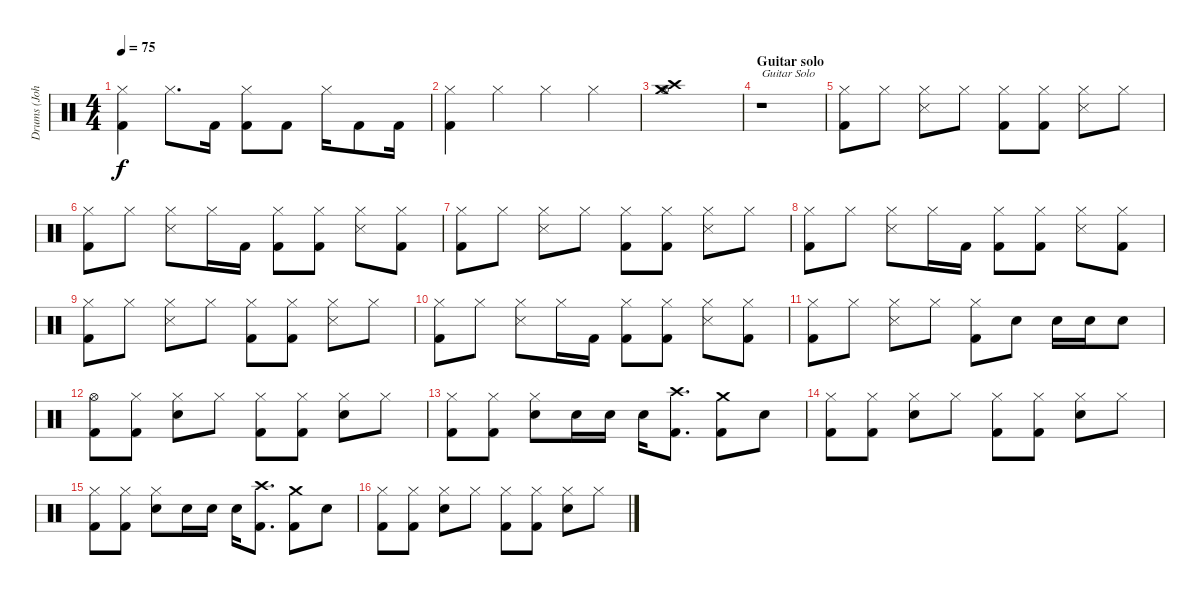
\track ("Drums (John Bonham" "Drums (Joh") {instrument percussion}
\staff {score}
\articulation defaults
\ts (4 4)
\tempo 75
\clef neutral
\ks c
("Hi-Hat (closed)" "Kick (hit) 2").4{dy f} "Hi-Hat (closed)".8{d} "Kick (hit) 2".16 ("Hi-Hat (closed)" "Kick (hit) 2").8 "Kick (hit) 2".8 "Hi-Hat (closed)".16 "Kick (hit) 2".8 "Kick (hit) 2".16 |
("Hi-Hat (closed)" "Kick (hit) 2").4 "Hi-Hat (closed)".4 "Hi-Hat (closed)".4 "Hi-Hat (closed)".4 |
("Crash medium (hit)" "Crash high (hit)" "Hi-Hat (open)").1 |
\section ("" "Guitar solo")
r.1{txt "Guitar Solo"} |
("Hi-Hat (closed)" "Kick (hit) 2").8 "Hi-Hat (closed)".8 ("Hi-Hat (closed)" "Snare (side stick) 3").8 "Hi-Hat (closed)".8 ("Hi-Hat (closed)" "Kick (hit) 2").8 ("Hi-Hat (closed)" "Kick (hit) 2").8 ("Hi-Hat (closed)" "Snare (side stick) 3").8 "Hi-Hat (closed)".8 |
("Hi-Hat (closed)" "Kick (hit) 2").8 "Hi-Hat (closed)".8 ("Hi-Hat (closed)" "Snare (side stick) 3").8 "Hi-Hat (closed)".16 "Kick (hit) 2".16 ("Hi-Hat (closed)" "Kick (hit) 2").8 ("Hi-Hat (closed)" "Kick (hit) 2").8 ("Hi-Hat (closed)" "Snare (side stick) 3").8 ("Hi-Hat (closed)" "Kick (hit) 2").8 |
("Hi-Hat (closed)" "Kick (hit) 2").8 "Hi-Hat (closed)".8 ("Hi-Hat (closed)" "Snare (side stick) 3").8 "Hi-Hat (closed)".8 ("Hi-Hat (closed)" "Kick (hit) 2").8 ("Hi-Hat (closed)" "Kick (hit) 2").8 ("Hi-Hat (closed)" "Snare (side stick) 3").8 "Hi-Hat (closed)".8 |
("Hi-Hat (closed)" "Kick (hit) 2").8 "Hi-Hat (closed)".8 ("Hi-Hat (closed)" "Snare (side stick) 3").8 "Hi-Hat (closed)".16 "Kick (hit) 2".16 ("Hi-Hat (closed)" "Kick (hit) 2").8 ("Hi-Hat (closed)" "Kick (hit) 2").8 ("Hi-Hat (closed)" "Snare (side stick) 3").8 ("Hi-Hat (closed)" "Kick (hit) 2").8 |
("Hi-Hat (closed)" "Kick (hit) 2").8 "Hi-Hat (closed)".8 ("Hi-Hat (closed)" "Snare (side stick) 3").8 "Hi-Hat (closed)".8 ("Hi-Hat (closed)" "Kick (hit) 2").8 ("Hi-Hat (closed)" "Kick (hit) 2").8 ("Hi-Hat (closed)" "Snare (side stick) 3").8 "Hi-Hat (closed)".8 |
("Hi-Hat (closed)" "Kick (hit) 2").8 "Hi-Hat (closed)".8 ("Hi-Hat (closed)" "Snare (side stick) 3").8 "Hi-Hat (closed)".16 "Kick (hit) 2".16 ("Hi-Hat (closed)" "Kick (hit) 2").8 ("Hi-Hat (closed)" "Kick (hit) 2").8 ("Hi-Hat (closed)" "Snare (side stick) 3").8 ("Hi-Hat (closed)" "Kick (hit) 2").8 |
("Hi-Hat (closed)" "Kick (hit) 2").8 "Hi-Hat (closed)".8 ("Hi-Hat (closed)" "Snare (side stick) 3").8 "Hi-Hat (closed)".8 ("Hi-Hat (closed)" "Kick (hit) 2").8 "Snare (hit) 2".8 "Snare (hit) 2".16 "Snare (hit) 2".16 "Snare (hit) 2".8 |
("Hi-Hat (open)" "Kick (hit) 2").8 ("Hi-Hat (closed)" "Kick (hit) 2").8 ("Hi-Hat (closed)" "Snare (hit) 2").8 "Hi-Hat (closed)".8 ("Hi-Hat (closed)" "Kick (hit) 2").8 ("Hi-Hat (closed)" "Kick (hit) 2").8 ("Hi-Hat (closed)" "Snare (hit) 2").8 "Hi-Hat (closed)".8 |
("Hi-Hat (closed)" "Kick (hit) 2").8 ("Hi-Hat (closed)" "Kick (hit) 2").8 ("Hi-Hat (closed)" "Snare (hit) 2").8 "Snare (hit) 2".16 "Snare (hit) 2".16 "Snare (hit) 2".16 ("Crash high (hit)" "Kick (hit) 2").8{d} ("Crash medium (hit)" "Kick (hit) 2").8 "Snare (hit) 2".8 |
("Hi-Hat (closed)" "Kick (hit) 2").8 ("Hi-Hat (closed)" "Kick (hit) 2").8 ("Hi-Hat (closed)" "Snare (hit) 2").8 "Hi-Hat (closed)".8 ("Hi-Hat (closed)" "Kick (hit) 2").8 ("Hi-Hat (closed)" "Kick (hit) 2").8 ("Hi-Hat (closed)" "Snare (hit) 2").8 "Hi-Hat (closed)".8 |
("Hi-Hat (closed)" "Kick (hit) 2").8 ("Hi-Hat (closed)" "Kick (hit) 2").8 ("Hi-Hat (closed)" "Snare (hit) 2").8 "Snare (hit) 2".16 "Snare (hit) 2".16 "Snare (hit) 2".16 ("Crash high (hit)" "Kick (hit) 2").8{d} ("Crash medium (hit)" "Kick (hit) 2").8 "Snare (hit) 2".8 |
("Hi-Hat (closed)" "Kick (hit) 2").8 ("Hi-Hat (closed)" "Kick (hit) 2").8 ("Hi-Hat (closed)" "Snare (hit) 2").8 "Hi-Hat (closed)".8 ("Hi-Hat (closed)" "Kick (hit) 2").8 ("Hi-Hat (closed)" "Kick (hit) 2").8 ("Hi-Hat (closed)" "Snare (hit) 2").8 "Hi-Hat (closed)".8
